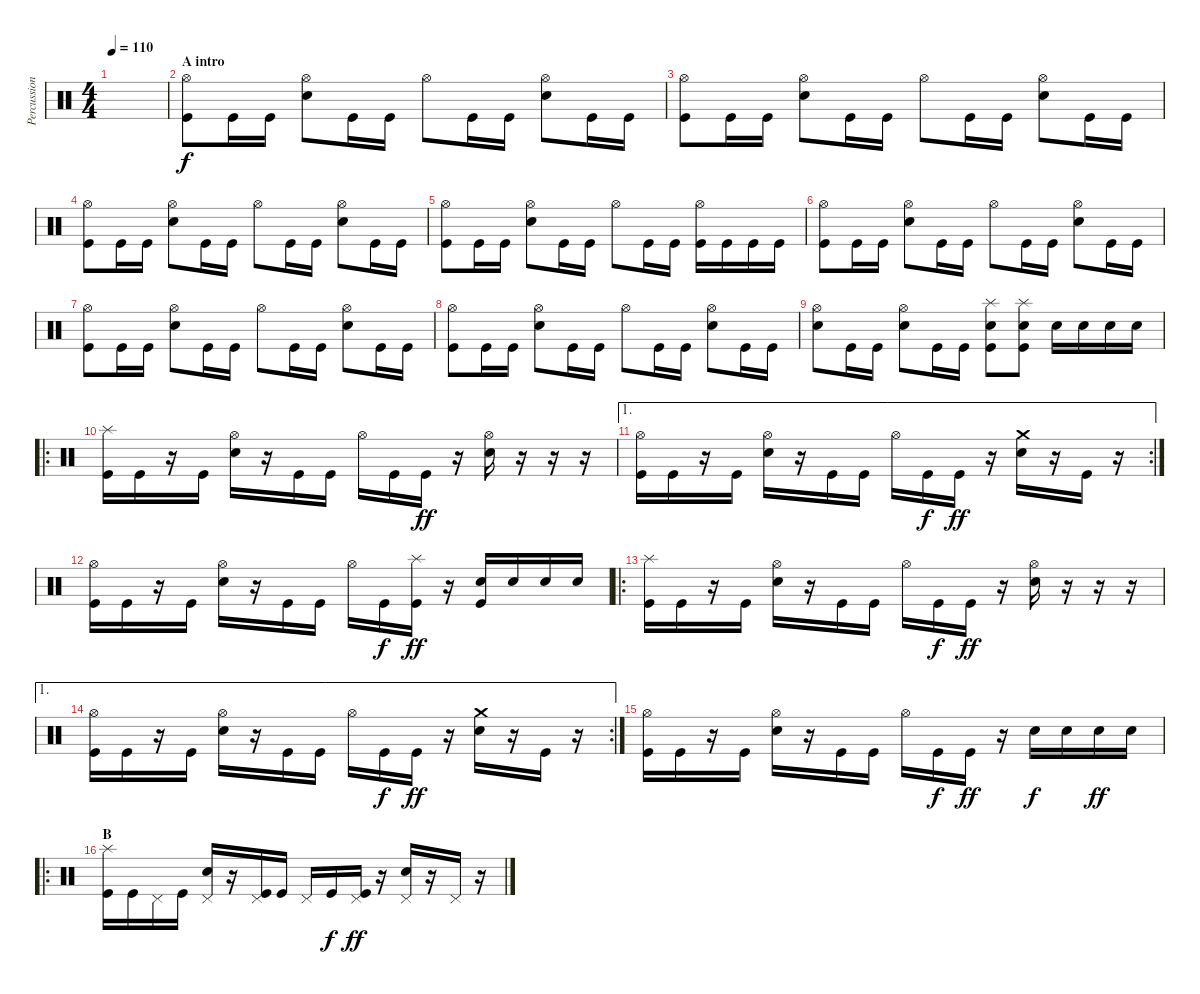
\track ("Percussion" "Percussion") {instrument percussion}
\staff {score}
\articulation defaults
\ts (4 4)
\tempo 110
\clef neutral
\ks c
|
\section ("" "A intro")
("Hi-Hat (open)" "Kick (hit)").8{volume 4} "Kick (hit)".16 "Kick (hit)".16 ("Hi-Hat (open)" "Snare (hit) 2").8 "Kick (hit)".16 "Kick (hit)".16 "Hi-Hat (open)".8 "Kick (hit)".16 "Kick (hit)".16 ("Hi-Hat (open)" "Snare (hit) 2").8 "Kick (hit)".16 "Kick (hit)".16 |
("Hi-Hat (open)" "Kick (hit)").8 "Kick (hit)".16 "Kick (hit)".16 ("Hi-Hat (open)" "Snare (hit) 2").8 "Kick (hit)".16 "Kick (hit)".16 "Hi-Hat (open)".8 "Kick (hit)".16 "Kick (hit)".16 ("Hi-Hat (open)" "Snare (hit) 2").8 "Kick (hit)".16 "Kick (hit)".16 |
("Hi-Hat (open)" "Kick (hit)").8{volume 8} "Kick (hit)".16 "Kick (hit)".16 ("Hi-Hat (open)" "Snare (hit) 2").8 "Kick (hit)".16 "Kick (hit)".16 "Hi-Hat (open)".8 "Kick (hit)".16 "Kick (hit)".16 ("Hi-Hat (open)" "Snare (hit) 2").8 "Kick (hit)".16 "Kick (hit)".16 |
("Hi-Hat (open)" "Kick (hit)").8 "Kick (hit)".16 "Kick (hit)".16 ("Hi-Hat (open)" "Snare (hit) 2").8 "Kick (hit)".16 "Kick (hit)".16 "Hi-Hat (open)".8 "Kick (hit)".16 "Kick (hit)".16 ("Hi-Hat (open)" "Kick (hit)").16 "Kick (hit)".16 "Kick (hit)".16 "Kick (hit)".16 |
("Hi-Hat (open)" "Kick (hit)").8{volume 12} "Kick (hit)".16 "Kick (hit)".16 ("Hi-Hat (open)" "Snare (hit) 2").8 "Kick (hit)".16 "Kick (hit)".16 "Hi-Hat (open)".8 "Kick (hit)".16 "Kick (hit)".16 ("Hi-Hat (open)" "Snare (hit) 2").8 "Kick (hit)".16 "Kick (hit)".16 |
("Hi-Hat (open)" "Kick (hit)").8 "Kick (hit)".16 "Kick (hit)".16 ("Hi-Hat (open)" "Snare (hit) 2").8 "Kick (hit)".16 "Kick (hit)".16 "Hi-Hat (open)".8 "Kick (hit)".16 "Kick (hit)".16 ("Hi-Hat (open)" "Snare (hit) 2").8 "Kick (hit)".16 "Kick (hit)".16 |
("Hi-Hat (open)" "Kick (hit)").8{volume 16} "Kick (hit)".16 "Kick (hit)".16 ("Hi-Hat (open)" "Snare (hit) 2").8 "Kick (hit)".16 "Kick (hit)".16 "Hi-Hat (open)".8 "Kick (hit)".16 "Kick (hit)".16 ("Hi-Hat (open)" "Snare (hit) 2").8 "Kick (hit)".16 "Kick (hit)".16 |
("Hi-Hat (open)" "Snare (hit) 2").8 "Kick (hit)".16 "Kick (hit)".16 ("Hi-Hat (open)" "Snare (hit) 2").8 "Kick (hit)".16 "Kick (hit)".16 ("Splash (hit)" "Snare (hit) 2" "Kick (hit)").8 ("Splash (hit)" "Snare (hit) 2" "Kick (hit)").8 "Snare (hit) 2".16 "Snare (hit) 2".16 "Snare (hit) 2".16 "Snare (hit) 2".16 |
\ro
("Splash (hit)" "Kick (hit)").16 "Kick (hit)".16 r.16 "Kick (hit)".16 ("Hi-Hat (open)" "Snare (hit) 2").16 r.16 "Kick (hit)".16 "Kick (hit)".16 "Hi-Hat (open)".16 "Kick (hit)".16{dy f} "Kick (hit)".16{dy ff} r.16 ("Hi-Hat (open)" "Snare (hit) 2").16 r.16 r.16 r.16 |
\ae 1
\rc 2
("Hi-Hat (open)" "Kick (hit)").16 "Kick (hit)".16 r.16 "Kick (hit)".16 ("Hi-Hat (open)" "Snare (hit) 2").16 r.16 "Kick (hit)".16 "Kick (hit)".16 "Hi-Hat (open)".16 "Kick (hit)".16{dy f} "Kick (hit)".16{dy ff} r.16 ("Crash medium (hit)" "Snare (hit) 2").16 r.16 "Kick (hit)".16 r.16 |
("Hi-Hat (open)" "Kick (hit)").16 "Kick (hit)".16 r.16 "Kick (hit)".16 ("Hi-Hat (open)" "Snare (hit) 2").16 r.16 "Kick (hit)".16 "Kick (hit)".16 "Hi-Hat (open)".16 "Kick (hit)".16{dy f} ("Splash (hit)" "Kick (hit)").16{dy ff} r.16 ("Snare (hit) 2" "Kick (hit)").16 "Snare (hit) 2".16 "Snare (hit) 2".16 "Snare (hit) 2".16 |
\ro
("Splash (hit)" "Kick (hit)").16 "Kick (hit)".16 r.16 "Kick (hit)".16 ("Hi-Hat (open)" "Snare (hit) 2").16 r.16 "Kick (hit)".16 "Kick (hit)".16 "Hi-Hat (open)".16 "Kick (hit)".16{dy f} "Kick (hit)".16{dy ff} r.16 ("Hi-Hat (open)" "Snare (hit) 2").16 r.16 r.16 r.16 |
\ae 1
\rc 2
("Hi-Hat (open)" "Kick (hit)").16 "Kick (hit)".16 r.16 "Kick (hit)".16 ("Hi-Hat (open)" "Snare (hit) 2").16 r.16 "Kick (hit)".16 "Kick (hit)".16 "Hi-Hat (open)".16 "Kick (hit)".16{dy f} "Kick (hit)".16{dy ff} r.16 ("Crash medium (hit)" "Snare (hit) 2").16 r.16 "Kick (hit)".16 r.16 |
("Hi-Hat (open)" "Kick (hit)").16 "Kick (hit)".16 r.16 "Kick (hit)".16 ("Hi-Hat (open)" "Snare (hit) 2").16 r.16 "Kick (hit)".16 "Kick (hit)".16 "Hi-Hat (open)".16 "Kick (hit)".16{dy f} "Kick (hit)".16{dy ff} r.16 "Snare (hit) 2".16{dy f} "Snare (hit) 2".16 "Snare (hit) 2".16{dy ff} "Snare (hit) 2".16 |
\ro
\section ("" "B")
("Splash (hit)" "Kick (hit)").16 "Kick (hit)".16 "Pedal Hi-Hat (hit)".16 "Kick (hit)".16 ("Pedal Hi-Hat (hit)" "Snare (hit) 2").16 r.16 ("Pedal Hi-Hat (hit)" "Kick (hit)").16 "Kick (hit)".16 "Pedal Hi-Hat (hit)".16 "Kick (hit)".16{dy f} ("Pedal Hi-Hat (hit)" "Kick (hit)").16{dy ff} r.16 ("Pedal Hi-Hat (hit)" "Snare (hit) 2").16 r.16 "Pedal Hi-Hat (hit)".16 r.16
